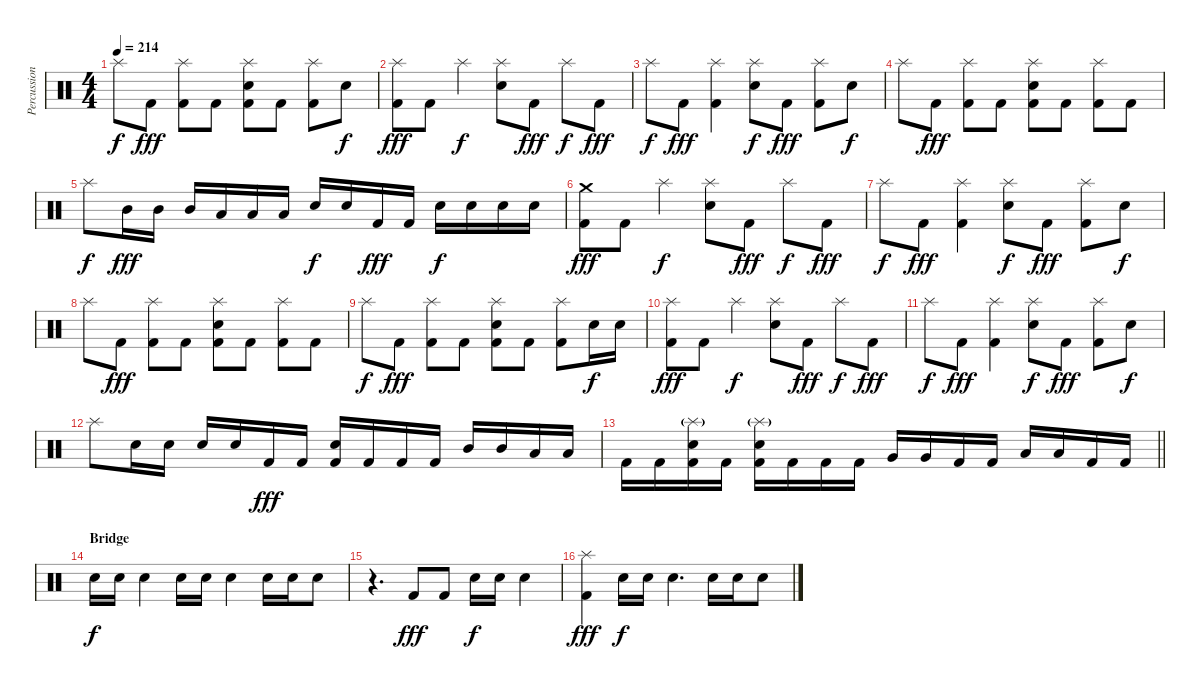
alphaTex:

\track ("Percussion" "Percussion") {instrument percussion}
\staff {score}
\articulation defaults
\ts (4 4)
\tempo 214
\clef neutral
\ks c "Splash (hit)".8{dy f} "Kick (hit) 2".8{dy fff}
("Splash (hit)" "Kick (hit) 2").8 "Kick (hit) 2".8 ("Splash (hit)" "Electric Snare (hit)" "Kick (hit) 2").8 "Kick (hit) 2".8 ("Splash (hit)" "Kick (hit) 2").8 "Electric Snare (hit)".8{dy f} |
("Splash (hit)" "Kick (hit) 2").8{dy fff} "Kick (hit) 2".8 "Splash (hit)".4{dy f} ("Splash (hit)" "Electric Snare (hit)").8 "Kick (hit) 2".8{dy fff} "Splash (hit)".8{dy f} "Kick (hit) 2".8{dy fff} |
"Splash (hit)".8{dy f} "Kick (hit) 2".8{dy fff} ("Splash (hit)" "Kick (hit) 2").4 ("Splash (hit)" "Electric Snare (hit)").8{dy f} "Kick (hit) 2".8{dy fff} ("Splash (hit)" "Kick (hit) 2").8 "Electric Snare (hit)".8{dy f} |
"Splash (hit)".8 "Kick (hit) 2".8{dy fff} ("Splash (hit)" "Kick (hit) 2").8 "Kick (hit) 2".8 ("Splash (hit)" "Electric Snare (hit)" "Kick (hit) 2").8 "Kick (hit) 2".8 ("Splash (hit)" "Kick (hit) 2").8 "Kick (hit) 2".8 |
"Splash (hit)".8{dy f} "Mid Tom (hit)".16{dy fff} "Mid Tom (hit)".16 "Mid Tom (hit)".16 "Low Tom (hit)".16 "Low Tom (hit)".16 "Low Tom (hit)".16 "Electric Snare (hit)".16{dy f} "Electric Snare (hit)".16 "Kick (hit) 2".16{dy fff} "Kick (hit) 2".16 "Electric Snare (hit)".16{dy f} "Electric Snare (hit)".16 "Electric Snare (hit)".16 "Electric Snare (hit)".16 |
("Crash medium (hit)" "Kick (hit) 2").8{dy fff} "Kick (hit) 2".8 "Splash (hit)".4{dy f} ("Splash (hit)" "Electric Snare (hit)").8 "Kick (hit) 2".8{dy fff} "Splash (hit)".8{dy f} "Kick (hit) 2".8{dy fff} |
"Splash (hit)".8{dy f} "Kick (hit) 2".8{dy fff} ("Splash (hit)" "Kick (hit) 2").4 ("Splash (hit)" "Electric Snare (hit)").8{dy f} "Kick (hit) 2".8{dy fff} ("Splash (hit)" "Kick (hit) 2").8 "Electric Snare (hit)".8{dy f} |
"Splash (hit)".8 "Kick (hit) 2".8{dy fff} ("Splash (hit)" "Kick (hit) 2").8 "Kick (hit) 2".8 ("Splash (hit)" "Electric Snare (hit)" "Kick (hit) 2").8 "Kick (hit) 2".8 ("Splash (hit)" "Kick (hit) 2").8 "Kick (hit) 2".8 |
"Splash (hit)".8{dy f} "Kick (hit) 2".8{dy fff} ("Splash (hit)" "Kick (hit) 2").8 "Kick (hit) 2".8 ("Splash (hit)" "Electric Snare (hit)" "Kick (hit) 2").8 "Kick (hit) 2".8 ("Splash (hit)" "Kick (hit) 2").8 "Electric Snare (hit)".16{dy f} "Electric Snare (hit)".16 |
("Splash (hit)" "Kick (hit) 2").8{dy fff} "Kick (hit) 2".8 "Splash (hit)".4{dy f} ("Splash (hit)" "Electric Snare (hit)").8 "Kick (hit) 2".8{dy fff} "Splash (hit)".8{dy f} "Kick (hit) 2".8{dy fff} |
"Splash (hit)".8{dy f} "Kick (hit) 2".8{dy fff} ("Splash (hit)" "Kick (hit) 2").4 ("Splash (hit)" "Electric Snare (hit)").8{dy f} "Kick (hit) 2".8{dy fff} ("Splash (hit)" "Kick (hit) 2").8 "Electric Snare (hit)".8{dy f} |
"Splash (hit)".8 "Electric Snare (hit)".16 "Electric Snare (hit)".16 "Electric Snare (hit)".16 "Electric Snare (hit)".16 "Kick (hit) 2".16{dy fff} "Kick (hit) 2".16 ("Electric Snare (hit)" "Kick (hit) 2").16 "Kick (hit) 2".16 "Kick (hit) 2".16 "Kick (hit) 2".16 "Mid Tom (hit)".16 "Mid Tom (hit)".16 "Low Tom (hit)".16 "Low Tom (hit)".16 |
\barLineRight lightlight "Kick (hit) 2".16 "Kick (hit) 2".16
("Splash (hit)"{g} "Electric Snare (hit)" "Kick (hit) 2").16 "Kick (hit) 2".16 ("Splash (hit)"{g} "Electric Snare (hit)" "Kick (hit) 2").16 "Kick (hit) 2".16 "Kick (hit) 2".16 "Kick (hit) 2".16 "Very Low Tom (hit)".16 "Very Low Tom (hit)".16 "Kick (hit) 2".16 "Kick (hit) 2".16 "Low Floor Tom (hit)".16 "Low Floor Tom (hit)".16 "Kick (hit) 2".16 "Kick (hit) 2".16 |
\section ("" "Bridge")
"Electric Snare (hit)".16{dy f} "Electric Snare (hit)".16 "Electric Snare (hit)".4 "Electric Snare (hit)".16 "Electric Snare (hit)".16{beam merge} "Electric Snare (hit)".4 "Electric Snare (hit)".16 "Electric Snare (hit)".16 "Electric Snare (hit)".8 |
r.4{d} "Kick (hit) 2".8{dy fff beam merge} "Kick (hit) 2".8{beam split} "Electric Snare (hit)".16{dy f} "Electric Snare (hit)".16{beam merge} "Electric Snare (hit)".4 |
("Splash (hit)" "Kick (hit) 2").4{dy fff} "Electric Snare (hit)".16{dy f} "Electric Snare (hit)".16{beam merge} "Electric Snare (hit)".4{d} "Electric Snare (hit)".16 "Electric Snare (hit)".16{beam merge} "Electric Snare (hit)".8
